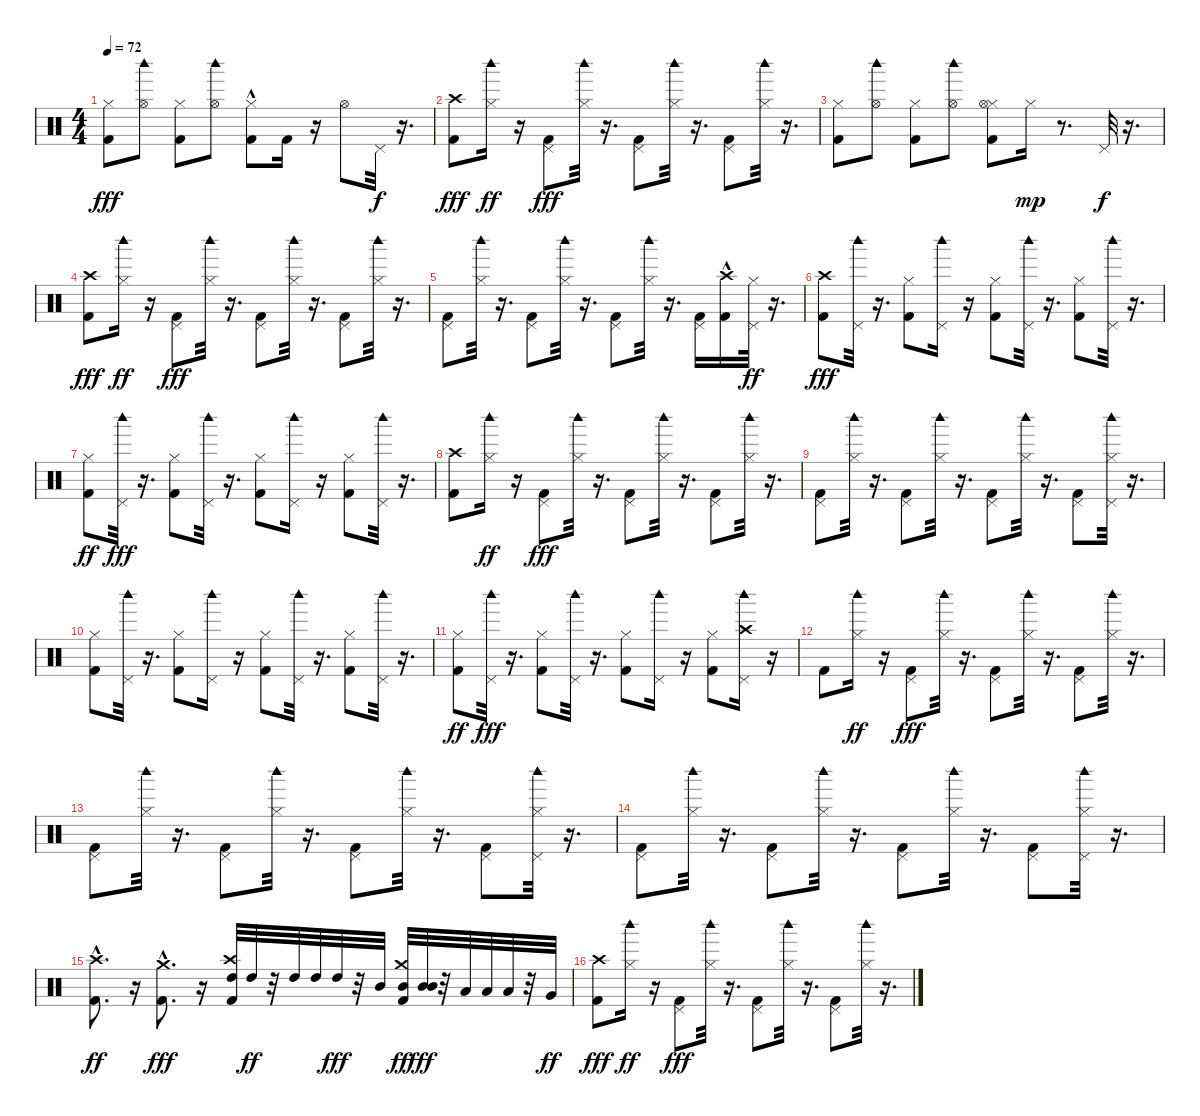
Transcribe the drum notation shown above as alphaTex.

\track "" {instrument percussion}
\staff {score}
\articulation defaults
\ts (4 4)
\tempo 72
\clef neutral
\ks c
("Hi-Hat (closed)" "Kick (hit) 2").8{dy fff} ("Hi-Hat (open)" "Woodblock high (hit)").8 ("Hi-Hat (closed)" "Kick (hit) 2").8 ("Hi-Hat (open)" "Woodblock high (hit)").8 ("Hi-Hat (closed)"{hac} "Kick (hit) 2").8 "Kick (hit) 2".16 r.16 "Hi-Hat (open)".8 "Pedal Hi-Hat (hit)".32{dy f} r.16{d} |
("Kick (hit) 2" "Crash high (hit)").8{dy fff} ("Woodblock high (hit)" "Hi-Hat (closed)").16{dy ff} r.16 ("Pedal Hi-Hat (hit)" "Kick (hit) 2").8{dy fff} ("Hi-Hat (closed)" "Woodblock high (hit)").32 r.16{d} ("Pedal Hi-Hat (hit)" "Kick (hit) 2").8 ("Hi-Hat (closed)" "Woodblock high (hit)").32 r.16{d} ("Pedal Hi-Hat (hit)" "Kick (hit) 2").8 ("Hi-Hat (closed)" "Woodblock high (hit)").32 r.16{d} |
("Hi-Hat (closed)" "Kick (hit) 2").8 ("Hi-Hat (open)" "Woodblock high (hit)").8 ("Hi-Hat (closed)" "Kick (hit) 2").8 ("Hi-Hat (open)" "Woodblock high (hit)").8 ("Hi-Hat (closed)" "Kick (hit) 2" "Hi-Hat (open)").8 "Hi-Hat (closed)".16{dy mp} r.8{d} "Pedal Hi-Hat (hit)".32{dy f} r.16{d} |
("Kick (hit) 2" "Crash high (hit)").8{dy fff} ("Woodblock high (hit)" "Hi-Hat (closed)").16{dy ff} r.16 ("Pedal Hi-Hat (hit)" "Kick (hit) 2").8{dy fff} ("Hi-Hat (closed)" "Woodblock high (hit)").32 r.16{d} ("Pedal Hi-Hat (hit)" "Kick (hit) 2").8 ("Hi-Hat (closed)" "Woodblock high (hit)").32 r.16{d} ("Pedal Hi-Hat (hit)" "Kick (hit) 2").8 ("Hi-Hat (closed)" "Woodblock high (hit)").32 r.16{d} |
("Pedal Hi-Hat (hit)" "Kick (hit) 2").8 ("Hi-Hat (closed)" "Woodblock high (hit)").32 r.16{d} ("Pedal Hi-Hat (hit)" "Kick (hit) 2").8 ("Hi-Hat (closed)" "Woodblock high (hit)").32 r.16{d} ("Pedal Hi-Hat (hit)" "Kick (hit) 2").8 ("Hi-Hat (closed)" "Woodblock high (hit)").32 r.16{d} ("Pedal Hi-Hat (hit)" "Kick (hit) 2").16 ("Kick (hit) 2"{hac} "Crash high (hit)"{hac}).16 ("Hi-Hat (closed)" "Pedal Hi-Hat (hit)").32{dy ff} r.16{d} |
("Crash high (hit)" "Kick (hit) 2").8{dy fff} ("Pedal Hi-Hat (hit)" "Woodblock high (hit)").32 r.16{d} ("Hi-Hat (closed)" "Kick (hit) 2").8 ("Pedal Hi-Hat (hit)" "Woodblock high (hit)").16 r.16 ("Hi-Hat (closed)" "Kick (hit) 2").8 ("Pedal Hi-Hat (hit)" "Woodblock high (hit)").32 r.16{d} ("Hi-Hat (closed)" "Kick (hit) 2").8 ("Pedal Hi-Hat (hit)" "Woodblock high (hit)").32 r.16{d} |
("Kick (hit) 2" "Hi-Hat (closed)").8{dy ff} ("Pedal Hi-Hat (hit)" "Woodblock high (hit)").32{dy fff} r.16{d} ("Hi-Hat (closed)" "Kick (hit) 2").8 ("Pedal Hi-Hat (hit)" "Woodblock high (hit)").32 r.16{d} ("Hi-Hat (closed)" "Kick (hit) 2").8 ("Pedal Hi-Hat (hit)" "Woodblock high (hit)").16 r.16 ("Hi-Hat (closed)" "Kick (hit) 2").8 ("Pedal Hi-Hat (hit)" "Woodblock high (hit)").32 r.16{d} |
("Kick (hit) 2" "Crash high (hit)").8 ("Woodblock high (hit)" "Hi-Hat (closed)").16{dy ff} r.16 ("Pedal Hi-Hat (hit)" "Kick (hit) 2").8{dy fff} ("Hi-Hat (closed)" "Woodblock high (hit)").32 r.16{d} ("Pedal Hi-Hat (hit)" "Kick (hit) 2").8 ("Hi-Hat (closed)" "Woodblock high (hit)").32 r.16{d} ("Pedal Hi-Hat (hit)" "Kick (hit) 2").8 ("Hi-Hat (closed)" "Woodblock high (hit)").32 r.16{d} |
("Pedal Hi-Hat (hit)" "Kick (hit) 2").8 ("Hi-Hat (closed)" "Woodblock high (hit)").32 r.16{d} ("Pedal Hi-Hat (hit)" "Kick (hit) 2").8 ("Hi-Hat (closed)" "Woodblock high (hit)").32 r.16{d} ("Pedal Hi-Hat (hit)" "Kick (hit) 2").8 ("Hi-Hat (closed)" "Woodblock high (hit)").32 r.16{d} ("Pedal Hi-Hat (hit)" "Kick (hit) 2").8 ("Hi-Hat (closed)" "Pedal Hi-Hat (hit)" "Woodblock high (hit)").32 r.16{d} |
("Hi-Hat (closed)" "Kick (hit) 2").8 ("Pedal Hi-Hat (hit)" "Woodblock high (hit)").32 r.16{d} ("Hi-Hat (closed)" "Kick (hit) 2").8 ("Pedal Hi-Hat (hit)" "Woodblock high (hit)").16 r.16 ("Hi-Hat (closed)" "Kick (hit) 2").8 ("Pedal Hi-Hat (hit)" "Woodblock high (hit)").32 r.16{d} ("Hi-Hat (closed)" "Kick (hit) 2").8 ("Pedal Hi-Hat (hit)" "Woodblock high (hit)").32 r.16{d} |
("Kick (hit) 2" "Hi-Hat (closed)").8{dy ff} ("Pedal Hi-Hat (hit)" "Woodblock high (hit)").32{dy fff} r.16{d} ("Hi-Hat (closed)" "Kick (hit) 2").8 ("Pedal Hi-Hat (hit)" "Woodblock high (hit)").32 r.16{d} ("Hi-Hat (closed)" "Kick (hit) 2").8 ("Pedal Hi-Hat (hit)" "Woodblock high (hit)").16 r.16 ("Hi-Hat (closed)" "Kick (hit) 2").8 ("Crash high (hit)" "Pedal Hi-Hat (hit)" "Woodblock high (hit)").16 r.16 |
"Kick (hit) 2".8 ("Woodblock high (hit)" "Hi-Hat (closed)").16{dy ff} r.16 ("Pedal Hi-Hat (hit)" "Kick (hit) 2").8{dy fff} ("Hi-Hat (closed)" "Woodblock high (hit)").32 r.16{d} ("Pedal Hi-Hat (hit)" "Kick (hit) 2").8 ("Hi-Hat (closed)" "Woodblock high (hit)").32 r.16{d} ("Pedal Hi-Hat (hit)" "Kick (hit) 2").8 ("Hi-Hat (closed)" "Woodblock high (hit)").32 r.16{d} |
("Pedal Hi-Hat (hit)" "Kick (hit) 2").8 ("Hi-Hat (closed)" "Woodblock high (hit)").32 r.16{d} ("Pedal Hi-Hat (hit)" "Kick (hit) 2").8 ("Hi-Hat (closed)" "Woodblock high (hit)").32 r.16{d} ("Pedal Hi-Hat (hit)" "Kick (hit) 2").8 ("Hi-Hat (closed)" "Woodblock high (hit)").32 r.16{d} ("Pedal Hi-Hat (hit)" "Kick (hit) 2").8 ("Hi-Hat (closed)" "Pedal Hi-Hat (hit)" "Woodblock high (hit)").32 r.16{d} |
("Pedal Hi-Hat (hit)" "Kick (hit) 2").8 ("Hi-Hat (closed)" "Woodblock high (hit)").32 r.16{d} ("Pedal Hi-Hat (hit)" "Kick (hit) 2").8 ("Hi-Hat (closed)" "Woodblock high (hit)").32 r.16{d} ("Pedal Hi-Hat (hit)" "Kick (hit) 2").8 ("Hi-Hat (closed)" "Woodblock high (hit)").32 r.16{d} ("Pedal Hi-Hat (hit)" "Kick (hit) 2").8 ("Hi-Hat (closed)" "Pedal Hi-Hat (hit)" "Woodblock high (hit)").32 r.16{d} |
("Kick (hit) 2"{hac} "Crash high (hit)"{hac}).8{d dy ff} r.16 ("Crash medium (hit)"{hac} "Kick (hit) 2"{hac}).8{d dy fff} r.16 ("High Tom (hit)" "Crash high (hit)" "Kick (hit) 2").32 "High Tom (hit)".32{dy ff} r.32 "High Tom (hit)".32 "High Tom (hit)".32 "High Tom (hit)".32{dy fff} r.32 "Mid Tom (hit)".32 ("Mid Tom (hit)" "Crash medium (hit)" "Kick (hit) 2").32{dy ff} ("Mid Tom (hit)" "Mid Tom (hit)").32{dy fff} r.32 "Low Tom (hit)".32 "Low Tom (hit)".32 "Low Tom (hit)".32 r.32 "Very Low Tom (hit)".32{dy ff} |
("Kick (hit) 2" "Crash high (hit)").8{dy fff} ("Woodblock high (hit)" "Hi-Hat (closed)").16{dy ff} r.16 ("Pedal Hi-Hat (hit)" "Kick (hit) 2").8{dy fff} ("Hi-Hat (closed)" "Woodblock high (hit)").32 r.16{d} ("Pedal Hi-Hat (hit)" "Kick (hit) 2").8 ("Hi-Hat (closed)" "Woodblock high (hit)").32 r.16{d} ("Pedal Hi-Hat (hit)" "Kick (hit) 2").8 ("Hi-Hat (closed)" "Woodblock high (hit)").32 r.16{d}
